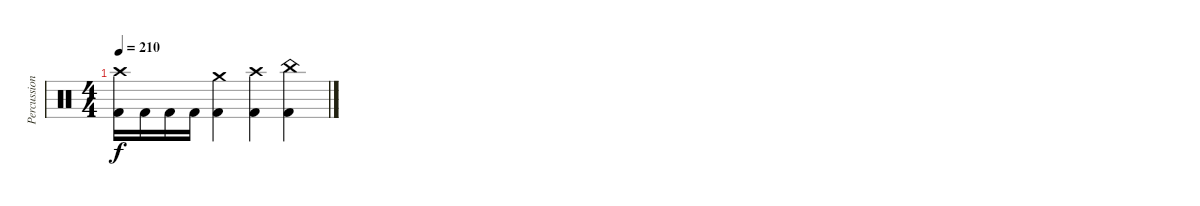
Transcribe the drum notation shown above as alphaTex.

\track ("Percussions" "Percussion") {instrument percussion}
\staff {score}
\articulation defaults
\ts (4 4)
\tempo 210
\clef neutral
\ks c
("Kick (hit) 2" "Crash high (hit)").16{dy f} "Kick (hit) 2".16 "Kick (hit) 2".16 "Kick (hit) 2".16 ("Kick (hit) 2" "Crash medium (hit)").4 ("Kick (hit) 2" "Crash high (hit)").4 ("Kick (hit) 2" "China (hit)").4
